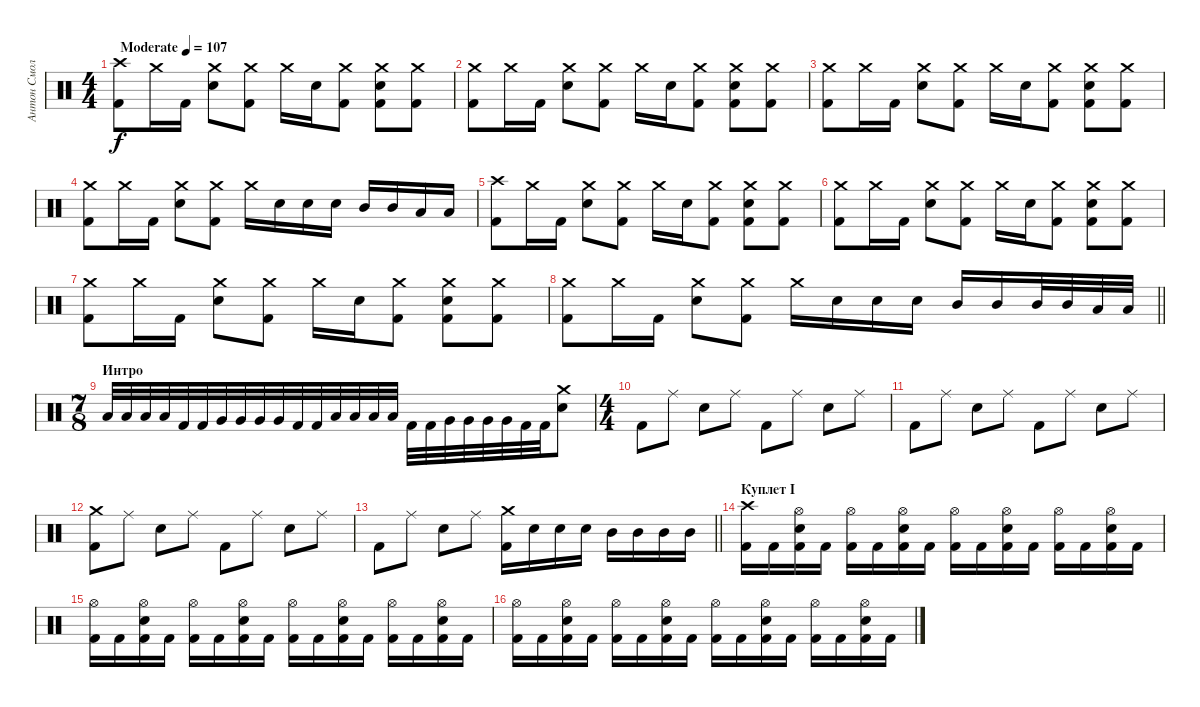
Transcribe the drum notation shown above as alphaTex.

\track ("Антон Смольянин" "Антон Смол") {instrument percussion}
\staff {score}
\articulation defaults
\ts (4 4)
\tempo (107 "Moderate")
\clef neutral
\ks c
("Crash high (hit)" "Kick (hit) 2").8{dy f} "Crash medium (hit)".16 "Kick (hit) 2".16 ("Crash medium (hit)" "Electric Snare (hit)").8 ("Crash medium (hit)" "Kick (hit) 2").8 "Crash medium (hit)".16 "Electric Snare (hit)".16 ("Crash medium (hit)" "Kick (hit) 2").8 ("Crash medium (hit)" "Electric Snare (hit)" "Kick (hit) 2").8 ("Crash medium (hit)" "Kick (hit) 2").8 |
("Crash medium (hit)" "Kick (hit) 2").8 "Crash medium (hit)".16 "Kick (hit) 2".16 ("Crash medium (hit)" "Electric Snare (hit)").8 ("Crash medium (hit)" "Kick (hit) 2").8 "Crash medium (hit)".16 "Electric Snare (hit)".16 ("Crash medium (hit)" "Kick (hit) 2").8 ("Crash medium (hit)" "Electric Snare (hit)" "Kick (hit) 2").8 ("Crash medium (hit)" "Kick (hit) 2").8 |
("Crash medium (hit)" "Kick (hit) 2").8 "Crash medium (hit)".16 "Kick (hit) 2".16 ("Crash medium (hit)" "Electric Snare (hit)").8 ("Crash medium (hit)" "Kick (hit) 2").8 "Crash medium (hit)".16 "Electric Snare (hit)".16 ("Crash medium (hit)" "Kick (hit) 2").8 ("Crash medium (hit)" "Electric Snare (hit)" "Kick (hit) 2").8 ("Crash medium (hit)" "Kick (hit) 2").8 |
("Crash medium (hit)" "Kick (hit) 2").8 "Crash medium (hit)".16 "Kick (hit) 2".16 ("Crash medium (hit)" "Electric Snare (hit)").8 ("Crash medium (hit)" "Kick (hit) 2").8 "Crash medium (hit)".16 "Electric Snare (hit)".16 "Electric Snare (hit)".16 "Electric Snare (hit)".16 "Mid Tom (hit)".16 "Mid Tom (hit)".16 "Low Tom (hit)".16 "Low Tom (hit)".16 |
("Crash high (hit)" "Kick (hit) 2").8 "Crash medium (hit)".16 "Kick (hit) 2".16 ("Crash medium (hit)" "Electric Snare (hit)").8 ("Crash medium (hit)" "Kick (hit) 2").8 "Crash medium (hit)".16 "Electric Snare (hit)".16 ("Crash medium (hit)" "Kick (hit) 2").8 ("Crash medium (hit)" "Electric Snare (hit)" "Kick (hit) 2").8 ("Crash medium (hit)" "Kick (hit) 2").8 |
("Crash medium (hit)" "Kick (hit) 2").8 "Crash medium (hit)".16 "Kick (hit) 2".16 ("Crash medium (hit)" "Electric Snare (hit)").8 ("Crash medium (hit)" "Kick (hit) 2").8 "Crash medium (hit)".16 "Electric Snare (hit)".16 ("Crash medium (hit)" "Kick (hit) 2").8 ("Crash medium (hit)" "Electric Snare (hit)" "Kick (hit) 2").8 ("Crash medium (hit)" "Kick (hit) 2").8 |
("Crash medium (hit)" "Kick (hit) 2").8 "Crash medium (hit)".16 "Kick (hit) 2".16 ("Crash medium (hit)" "Electric Snare (hit)").8 ("Crash medium (hit)" "Kick (hit) 2").8 "Crash medium (hit)".16 "Electric Snare (hit)".16 ("Crash medium (hit)" "Kick (hit) 2").8 ("Crash medium (hit)" "Electric Snare (hit)" "Kick (hit) 2").8 ("Crash medium (hit)" "Kick (hit) 2").8 |
\barLineRight lightlight
("Crash medium (hit)" "Kick (hit) 2").8 "Crash medium (hit)".16 "Kick (hit) 2".16 ("Crash medium (hit)" "Electric Snare (hit)").8 ("Crash medium (hit)" "Kick (hit) 2").8 "Crash medium (hit)".16 "Electric Snare (hit)".16 "Electric Snare (hit)".16 "Electric Snare (hit)".16 "Mid Tom (hit)".16 "Mid Tom (hit)".16 "Mid Tom (hit)".32 "Mid Tom (hit)".32 "Low Tom (hit)".32 "Low Tom (hit)".32 |
\ts (7 8)
\section ("" "Интро")
"Low Tom (hit)".32 "Low Tom (hit)".32 "Low Tom (hit)".32 "Low Tom (hit)".32 "Kick (hit) 2".32 "Kick (hit) 2".32 "Very Low Tom (hit)".32 "Very Low Tom (hit)".32 "Very Low Tom (hit)".32 "Very Low Tom (hit)".32 "Kick (hit) 2".32 "Kick (hit) 2".32 "Low Tom (hit)".32 "Low Tom (hit)".32 "Low Tom (hit)".32 "Low Tom (hit)".32 "Kick (hit) 2".32 "Kick (hit) 2".32 "Very Low Tom (hit)".32 "Very Low Tom (hit)".32 "Very Low Tom (hit)".32 "Very Low Tom (hit)".32 "Kick (hit) 2".32 "Kick (hit) 2".32 ("Crash medium (hit)" "Electric Snare (hit)").8 |
\ts (4 4)
"Kick (hit) 2".8 "Ride (middle)".8 "Electric Snare (hit)".8 "Ride (middle)".8 "Kick (hit) 2".8 "Ride (middle)".8 "Electric Snare (hit)".8 "Ride (middle)".8 |
"Kick (hit) 2".8 "Ride (middle)".8 "Electric Snare (hit)".8 "Ride (middle)".8 "Kick (hit) 2".8 "Ride (middle)".8 "Electric Snare (hit)".8 "Ride (middle)".8 |
("Crash medium (hit)" "Kick (hit) 2").8 "Ride (middle)".8 "Electric Snare (hit)".8 "Ride (middle)".8 "Kick (hit) 2".8 "Ride (middle)".8 "Electric Snare (hit)".8 "Ride (middle)".8 |
\barLineRight lightlight "Kick (hit) 2".8 "Ride (middle)".8 "Electric Snare (hit)".8 "Ride (middle)".8
("Crash medium (hit)" "Kick (hit) 2").16 "Electric Snare (hit)".16 "Electric Snare (hit)".16 "Electric Snare (hit)".16 "Mid Tom (hit)".16 "Mid Tom (hit)".16 "Mid Tom (hit)".16 "Mid Tom (hit)".16 |
\section ("" "Куплет I")
("Crash high (hit)" "Kick (hit) 2").16 "Kick (hit) 2".16 ("Hi-Hat (open)" "Electric Snare (hit)" "Kick (hit) 2").16 "Kick (hit) 2".16 ("Hi-Hat (open)" "Kick (hit) 2").16 "Kick (hit) 2".16 ("Hi-Hat (open)" "Electric Snare (hit)" "Kick (hit) 2").16 "Kick (hit) 2".16 ("Hi-Hat (open)" "Kick (hit) 2").16 "Kick (hit) 2".16 ("Hi-Hat (open)" "Electric Snare (hit)" "Kick (hit) 2").16 "Kick (hit) 2".16 ("Hi-Hat (open)" "Kick (hit) 2").16 "Kick (hit) 2".16 ("Hi-Hat (open)" "Electric Snare (hit)" "Kick (hit) 2").16 "Kick (hit) 2".16 |
("Hi-Hat (open)" "Kick (hit) 2").16 "Kick (hit) 2".16 ("Hi-Hat (open)" "Electric Snare (hit)" "Kick (hit) 2").16 "Kick (hit) 2".16 ("Hi-Hat (open)" "Kick (hit) 2").16 "Kick (hit) 2".16 ("Hi-Hat (open)" "Electric Snare (hit)" "Kick (hit) 2").16 "Kick (hit) 2".16 ("Hi-Hat (open)" "Kick (hit) 2").16 "Kick (hit) 2".16 ("Hi-Hat (open)" "Electric Snare (hit)" "Kick (hit) 2").16 "Kick (hit) 2".16 ("Hi-Hat (open)" "Kick (hit) 2").16 "Kick (hit) 2".16 ("Hi-Hat (open)" "Electric Snare (hit)" "Kick (hit) 2").16 "Kick (hit) 2".16 |
("Hi-Hat (open)" "Kick (hit) 2").16 "Kick (hit) 2".16 ("Hi-Hat (open)" "Electric Snare (hit)" "Kick (hit) 2").16 "Kick (hit) 2".16 ("Hi-Hat (open)" "Kick (hit) 2").16 "Kick (hit) 2".16 ("Hi-Hat (open)" "Electric Snare (hit)" "Kick (hit) 2").16 "Kick (hit) 2".16 ("Hi-Hat (open)" "Kick (hit) 2").16 "Kick (hit) 2".16 ("Hi-Hat (open)" "Electric Snare (hit)" "Kick (hit) 2").16 "Kick (hit) 2".16 ("Hi-Hat (open)" "Kick (hit) 2").16 "Kick (hit) 2".16 ("Hi-Hat (open)" "Electric Snare (hit)" "Kick (hit) 2").16 "Kick (hit) 2".16
